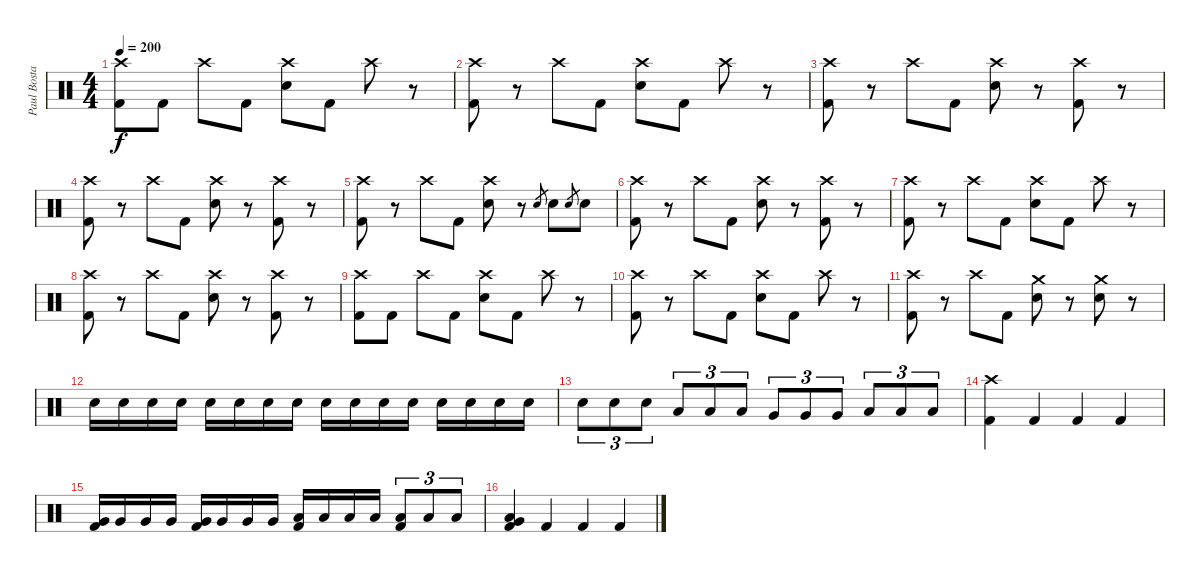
\track ("Paul Bostaph" "Paul Bosta") {instrument percussion}
\staff {score}
\articulation defaults
\ts (4 4)
\tempo 200
\clef neutral
\ks c
("Crash high (hit)" "Kick (hit) 2").8{dy f} "Kick (hit) 2".8 "Crash high (hit)".8 "Kick (hit) 2".8 ("Crash high (hit)" "Electric Snare (hit)").8 "Kick (hit) 2".8 "Crash high (hit)".8 r.8 |
("Crash high (hit)" "Kick (hit) 2").8 r.8 "Crash high (hit)".8 "Kick (hit) 2".8 ("Crash high (hit)" "Electric Snare (hit)").8 "Kick (hit) 2".8 "Crash high (hit)".8 r.8 |
("Crash high (hit)" "Kick (hit) 2").8 r.8 "Crash high (hit)".8 "Kick (hit) 2".8 ("Crash high (hit)" "Electric Snare (hit)").8 r.8 ("Crash high (hit)" "Kick (hit) 2").8 r.8 |
("Crash high (hit)" "Kick (hit) 2").8 r.8 "Crash high (hit)".8 "Kick (hit) 2".8 ("Crash high (hit)" "Electric Snare (hit)").8 r.8 ("Crash high (hit)" "Kick (hit) 2").8 r.8 |
("Crash high (hit)" "Kick (hit) 2").8 r.8 "Crash high (hit)".8 "Kick (hit) 2".8 ("Crash high (hit)" "Electric Snare (hit)").8 r.8 "Electric Snare (hit)".8{gr} "Electric Snare (hit)".8 "Electric Snare (hit)".8{gr} "Electric Snare (hit)".8 |
("Crash high (hit)" "Kick (hit) 2").8 r.8 "Crash high (hit)".8 "Kick (hit) 2".8 ("Crash high (hit)" "Electric Snare (hit)").8 r.8 ("Crash high (hit)" "Kick (hit) 2").8 r.8 |
("Crash high (hit)" "Kick (hit) 2").8 r.8 "Crash high (hit)".8 "Kick (hit) 2".8 ("Crash high (hit)" "Electric Snare (hit)").8 "Kick (hit) 2".8 "Crash high (hit)".8 r.8 |
("Crash high (hit)" "Kick (hit) 2").8 r.8 "Crash high (hit)".8 "Kick (hit) 2".8 ("Crash high (hit)" "Electric Snare (hit)").8 r.8 ("Crash high (hit)" "Kick (hit) 2").8 r.8 |
("Crash high (hit)" "Kick (hit) 2").8 "Kick (hit) 2".8 "Crash high (hit)".8 "Kick (hit) 2".8 ("Crash high (hit)" "Electric Snare (hit)").8 "Kick (hit) 2".8 "Crash high (hit)".8 r.8 |
("Crash high (hit)" "Kick (hit) 2").8 r.8 "Crash high (hit)".8 "Kick (hit) 2".8 ("Crash high (hit)" "Electric Snare (hit)").8 "Kick (hit) 2".8 "Crash high (hit)".8 r.8 |
("Crash high (hit)" "Kick (hit) 2").8 r.8 "Crash high (hit)".8 "Kick (hit) 2".8 ("Crash medium (hit)" "Electric Snare (hit)").8 r.8 ("Crash medium (hit)" "Electric Snare (hit)").8 r.8 |
"Electric Snare (hit)".16 "Electric Snare (hit)".16 "Electric Snare (hit)".16 "Electric Snare (hit)".16 "Electric Snare (hit)".16 "Electric Snare (hit)".16 "Electric Snare (hit)".16 "Electric Snare (hit)".16 "Electric Snare (hit)".16 "Electric Snare (hit)".16 "Electric Snare (hit)".16 "Electric Snare (hit)".16 "Electric Snare (hit)".16 "Electric Snare (hit)".16 "Electric Snare (hit)".16 "Electric Snare (hit)".16 |
"Electric Snare (hit)".8{tu (3 2)} "Electric Snare (hit)".8{tu (3 2)} "Electric Snare (hit)".8{tu (3 2)} "Low Tom (hit)".8{tu (3 2)} "Low Tom (hit)".8{tu (3 2)} "Low Tom (hit)".8{tu (3 2)} "Very Low Tom (hit)".8{tu (3 2)} "Very Low Tom (hit)".8{tu (3 2)} "Very Low Tom (hit)".8{tu (3 2)} "Low Floor Tom (hit)".8{tu (3 2)} "Low Floor Tom (hit)".8{tu (3 2)} "Low Floor Tom (hit)".8{tu (3 2)} |
("Crash high (hit)" "Kick (hit) 2").4 "Kick (hit) 2".4 "Kick (hit) 2".4 "Kick (hit) 2".4 |
("Very Low Tom (hit)" "Kick (hit) 2").16 "Very Low Tom (hit)".16 "Very Low Tom (hit)".16 "Very Low Tom (hit)".16 ("Very Low Tom (hit)" "Kick (hit) 2").16 "Very Low Tom (hit)".16 "Very Low Tom (hit)".16 "Very Low Tom (hit)".16 ("Low Floor Tom (hit)" "Kick (hit) 2").16 "Low Floor Tom (hit)".16 "Low Floor Tom (hit)".16 "Low Floor Tom (hit)".16 ("Low Floor Tom (hit)" "Kick (hit) 2").8{tu (3 2)} "Low Floor Tom (hit)".8{tu (3 2)} "Low Floor Tom (hit)".8{tu (3 2)} |
("Low Floor Tom (hit)" "Very Low Tom (hit)" "Kick (hit) 2").4 "Kick (hit) 2".4 "Kick (hit) 2".4 "Kick (hit) 2".4
